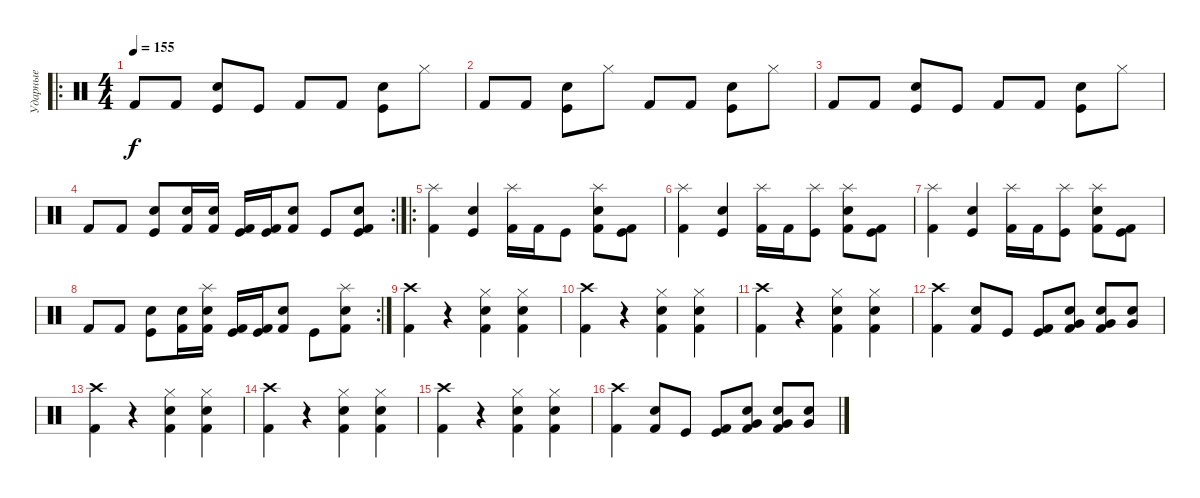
\track ("Ударные" "Ударные") {instrument percussion}
\staff {score}
\articulation defaults
\ro
\ts (4 4)
\tempo 155
\clef neutral
\ks c "Kick (hit) 2".8{dy f} "Kick (hit) 2".8
("Kick (hit)" "Electric Snare (hit)").8 "Kick (hit)".8 "Kick (hit) 2".8 "Kick (hit) 2".8 ("Kick (hit)" "Electric Snare (hit)").8 "Hi-Hat (closed)".8 |
"Kick (hit) 2".8 "Kick (hit) 2".8 ("Kick (hit)" "Electric Snare (hit)").8 "Hi-Hat (closed)".8 "Kick (hit) 2".8 "Kick (hit) 2".8 ("Kick (hit)" "Electric Snare (hit)").8 "Hi-Hat (closed)".8 |
"Kick (hit) 2".8 "Kick (hit) 2".8 ("Kick (hit)" "Electric Snare (hit)").8 "Kick (hit)".8 "Kick (hit) 2".8 "Kick (hit) 2".8 ("Kick (hit)" "Electric Snare (hit)").8 "Hi-Hat (closed)".8 |
\rc 2 "Kick (hit) 2".8 "Kick (hit) 2".8
("Kick (hit)" "Electric Snare (hit)").8 ("Electric Snare (hit)" "Kick (hit) 2").16 ("Electric Snare (hit)" "Kick (hit) 2").16 ("Kick (hit)" "Kick (hit) 2").16 ("Kick (hit)" "Kick (hit) 2").16 ("Electric Snare (hit)" "Kick (hit) 2").8 "Kick (hit)".8 ("Kick (hit)" "Electric Snare (hit)" "Kick (hit) 2").8 |
\ro
("Splash (hit)" "Kick (hit) 2").4 ("Kick (hit)" "Electric Snare (hit)").4 ("Splash (hit)" "Kick (hit) 2").16 "Kick (hit) 2".16 "Kick (hit)".8 ("Splash (hit)" "Electric Snare (hit)" "Kick (hit) 2").8 ("Kick (hit)" "Kick (hit) 2").8 |
("Splash (hit)" "Kick (hit) 2").4 ("Kick (hit)" "Electric Snare (hit)").4 ("Splash (hit)" "Kick (hit) 2").16 "Kick (hit) 2".16 ("Splash (hit)" "Kick (hit)").8 ("Splash (hit)" "Electric Snare (hit)" "Kick (hit) 2").8 ("Kick (hit)" "Kick (hit) 2").8 |
("Splash (hit)" "Kick (hit) 2").4 ("Kick (hit)" "Electric Snare (hit)").4 ("Splash (hit)" "Kick (hit) 2").16 "Kick (hit) 2".16 ("Splash (hit)" "Kick (hit)").8 ("Splash (hit)" "Electric Snare (hit)" "Kick (hit) 2").8 ("Kick (hit)" "Kick (hit) 2").8 |
\rc 2 "Kick (hit) 2".8 "Kick (hit) 2".8
("Kick (hit)" "Electric Snare (hit)").8 ("Electric Snare (hit)" "Kick (hit) 2").16 ("Splash (hit)" "Electric Snare (hit)" "Kick (hit) 2").16 ("Kick (hit)" "Kick (hit) 2").16 ("Kick (hit)" "Kick (hit) 2").16 ("Electric Snare (hit)" "Kick (hit) 2").8 "Kick (hit)".8 ("Splash (hit)" "Electric Snare (hit)" "Kick (hit) 2").8 |
("Crash high (hit)" "Kick (hit) 2").4 r.4 ("Hi-Hat (closed)" "Electric Snare (hit)" "Kick (hit) 2").4 ("Hi-Hat (closed)" "Electric Snare (hit)" "Kick (hit) 2").4 |
("Crash high (hit)" "Kick (hit) 2").4 r.4 ("Hi-Hat (closed)" "Electric Snare (hit)" "Kick (hit) 2").4 ("Hi-Hat (closed)" "Electric Snare (hit)" "Kick (hit) 2").4 |
("Crash high (hit)" "Kick (hit) 2").4 r.4 ("Hi-Hat (closed)" "Electric Snare (hit)" "Kick (hit) 2").4 ("Hi-Hat (closed)" "Electric Snare (hit)" "Kick (hit) 2").4 |
("Crash high (hit)" "Kick (hit) 2").4 ("Electric Snare (hit)" "Kick (hit) 2").8 "Kick (hit)".8 ("Kick (hit)" "Kick (hit) 2").8 ("Very Low Tom (hit)" "Electric Snare (hit)" "Kick (hit) 2").8 ("Very Low Tom (hit)" "Electric Snare (hit)" "Kick (hit) 2").8 ("Very Low Tom (hit)" "Electric Snare (hit)").8 |
("Crash high (hit)" "Kick (hit) 2").4 r.4 ("Hi-Hat (closed)" "Electric Snare (hit)" "Kick (hit) 2").4 ("Hi-Hat (closed)" "Electric Snare (hit)" "Kick (hit) 2").4 |
("Crash high (hit)" "Kick (hit) 2").4 r.4 ("Hi-Hat (closed)" "Electric Snare (hit)" "Kick (hit) 2").4 ("Hi-Hat (closed)" "Electric Snare (hit)" "Kick (hit) 2").4 |
("Crash high (hit)" "Kick (hit) 2").4 r.4 ("Hi-Hat (closed)" "Electric Snare (hit)" "Kick (hit) 2").4 ("Hi-Hat (closed)" "Electric Snare (hit)" "Kick (hit) 2").4 |
("Crash high (hit)" "Kick (hit) 2").4 ("Electric Snare (hit)" "Kick (hit) 2").8 "Kick (hit)".8 ("Kick (hit)" "Kick (hit) 2").8 ("Very Low Tom (hit)" "Electric Snare (hit)" "Kick (hit) 2").8 ("Very Low Tom (hit)" "Electric Snare (hit)" "Kick (hit) 2").8 ("Very Low Tom (hit)" "Electric Snare (hit)").8
